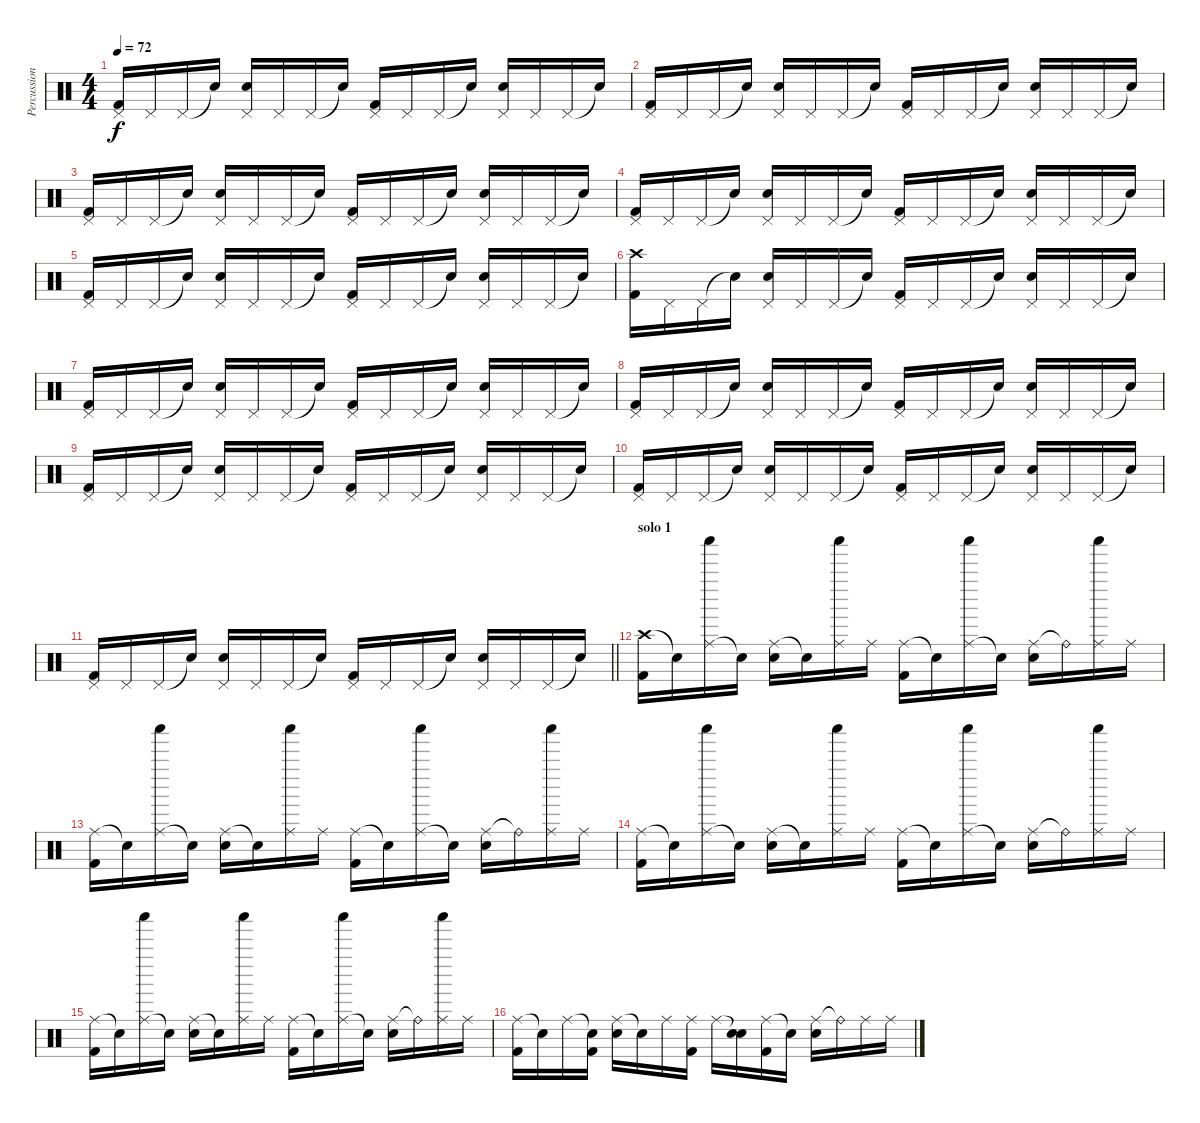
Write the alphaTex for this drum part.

\track ("Percussion" "Percussion") {instrument percussion}
\staff {score}
\articulation defaults
\ts (4 4)
\tempo 72
\clef neutral
\ks c
("Pedal Hi-Hat (hit)" "Kick (hit) 2").16{dy f} "Pedal Hi-Hat (hit)".16 "Pedal Hi-Hat (hit)".16 "Snare (hit)"{t}.16 ("Pedal Hi-Hat (hit)" "Electric Snare (hit)").16 "Pedal Hi-Hat (hit)".16 "Pedal Hi-Hat (hit)".16 "Snare (hit)"{t}.16 ("Pedal Hi-Hat (hit)" "Kick (hit) 2").16 "Pedal Hi-Hat (hit)".16 "Pedal Hi-Hat (hit)".16 "Snare (hit)"{t}.16 ("Pedal Hi-Hat (hit)" "Electric Snare (hit)").16 "Pedal Hi-Hat (hit)".16 "Pedal Hi-Hat (hit)".16 "Snare (hit)"{t}.16 |
("Pedal Hi-Hat (hit)" "Kick (hit) 2").16 "Pedal Hi-Hat (hit)".16 "Pedal Hi-Hat (hit)".16 "Snare (hit)"{t}.16 ("Pedal Hi-Hat (hit)" "Electric Snare (hit)").16 "Pedal Hi-Hat (hit)".16 "Pedal Hi-Hat (hit)".16 "Snare (hit)"{t}.16 ("Pedal Hi-Hat (hit)" "Kick (hit) 2").16 "Pedal Hi-Hat (hit)".16 "Pedal Hi-Hat (hit)".16 "Snare (hit)"{t}.16 ("Pedal Hi-Hat (hit)" "Electric Snare (hit)").16 "Pedal Hi-Hat (hit)".16 "Pedal Hi-Hat (hit)".16 "Snare (hit)"{t}.16 |
("Pedal Hi-Hat (hit)" "Kick (hit) 2").16 "Pedal Hi-Hat (hit)".16 "Pedal Hi-Hat (hit)".16 "Snare (hit)"{t}.16 ("Pedal Hi-Hat (hit)" "Electric Snare (hit)").16 "Pedal Hi-Hat (hit)".16 "Pedal Hi-Hat (hit)".16 "Snare (hit)"{t}.16 ("Pedal Hi-Hat (hit)" "Kick (hit) 2").16 "Pedal Hi-Hat (hit)".16 "Pedal Hi-Hat (hit)".16 "Snare (hit)"{t}.16 ("Pedal Hi-Hat (hit)" "Electric Snare (hit)").16 "Pedal Hi-Hat (hit)".16 "Pedal Hi-Hat (hit)".16 "Snare (hit)"{t}.16 |
("Pedal Hi-Hat (hit)" "Kick (hit) 2").16 "Pedal Hi-Hat (hit)".16 "Pedal Hi-Hat (hit)".16 "Snare (hit)"{t}.16 ("Pedal Hi-Hat (hit)" "Electric Snare (hit)").16 "Pedal Hi-Hat (hit)".16 "Pedal Hi-Hat (hit)".16 "Snare (hit)"{t}.16 ("Pedal Hi-Hat (hit)" "Kick (hit) 2").16 "Pedal Hi-Hat (hit)".16 "Pedal Hi-Hat (hit)".16 "Snare (hit)"{t}.16 ("Pedal Hi-Hat (hit)" "Electric Snare (hit)").16 "Pedal Hi-Hat (hit)".16 "Pedal Hi-Hat (hit)".16 "Snare (hit)"{t}.16 |
("Pedal Hi-Hat (hit)" "Kick (hit) 2").16 "Pedal Hi-Hat (hit)".16 "Pedal Hi-Hat (hit)".16 "Snare (hit)"{t}.16 ("Pedal Hi-Hat (hit)" "Electric Snare (hit)").16 "Pedal Hi-Hat (hit)".16 "Pedal Hi-Hat (hit)".16 "Snare (hit)"{t}.16 ("Pedal Hi-Hat (hit)" "Kick (hit) 2").16 "Pedal Hi-Hat (hit)".16 "Pedal Hi-Hat (hit)".16 "Snare (hit)"{t}.16 ("Pedal Hi-Hat (hit)" "Electric Snare (hit)").16 "Pedal Hi-Hat (hit)".16 "Pedal Hi-Hat (hit)".16 "Snare (hit)"{t}.16 |
("Crash high (hit)" "Kick (hit) 2").16 "Pedal Hi-Hat (hit)".16 "Pedal Hi-Hat (hit)".16 "Snare (hit)"{t}.16 ("Pedal Hi-Hat (hit)" "Electric Snare (hit)").16 "Pedal Hi-Hat (hit)".16 "Pedal Hi-Hat (hit)".16 "Snare (hit)"{t}.16 ("Pedal Hi-Hat (hit)" "Kick (hit) 2").16 "Pedal Hi-Hat (hit)".16 "Pedal Hi-Hat (hit)".16 "Snare (hit)"{t}.16 ("Pedal Hi-Hat (hit)" "Electric Snare (hit)").16 "Pedal Hi-Hat (hit)".16 "Pedal Hi-Hat (hit)".16 "Snare (hit)"{t}.16 |
("Pedal Hi-Hat (hit)" "Kick (hit) 2").16 "Pedal Hi-Hat (hit)".16 "Pedal Hi-Hat (hit)".16 "Snare (hit)"{t}.16 ("Pedal Hi-Hat (hit)" "Electric Snare (hit)").16 "Pedal Hi-Hat (hit)".16 "Pedal Hi-Hat (hit)".16 "Snare (hit)"{t}.16 ("Pedal Hi-Hat (hit)" "Kick (hit) 2").16 "Pedal Hi-Hat (hit)".16 "Pedal Hi-Hat (hit)".16 "Snare (hit)"{t}.16 ("Pedal Hi-Hat (hit)" "Electric Snare (hit)").16 "Pedal Hi-Hat (hit)".16 "Pedal Hi-Hat (hit)".16 "Snare (hit)"{t}.16 |
("Pedal Hi-Hat (hit)" "Kick (hit) 2").16 "Pedal Hi-Hat (hit)".16 "Pedal Hi-Hat (hit)".16 "Snare (hit)"{t}.16 ("Pedal Hi-Hat (hit)" "Electric Snare (hit)").16 "Pedal Hi-Hat (hit)".16 "Pedal Hi-Hat (hit)".16 "Snare (hit)"{t}.16 ("Pedal Hi-Hat (hit)" "Kick (hit) 2").16 "Pedal Hi-Hat (hit)".16 "Pedal Hi-Hat (hit)".16 "Snare (hit)"{t}.16 ("Pedal Hi-Hat (hit)" "Electric Snare (hit)").16 "Pedal Hi-Hat (hit)".16 "Pedal Hi-Hat (hit)".16 "Snare (hit)"{t}.16 |
("Pedal Hi-Hat (hit)" "Kick (hit) 2").16 "Pedal Hi-Hat (hit)".16 "Pedal Hi-Hat (hit)".16 "Snare (hit)"{t}.16 ("Pedal Hi-Hat (hit)" "Electric Snare (hit)").16 "Pedal Hi-Hat (hit)".16 "Pedal Hi-Hat (hit)".16 "Snare (hit)"{t}.16 ("Pedal Hi-Hat (hit)" "Kick (hit) 2").16 "Pedal Hi-Hat (hit)".16 "Pedal Hi-Hat (hit)".16 "Snare (hit)"{t}.16 ("Pedal Hi-Hat (hit)" "Electric Snare (hit)").16 "Pedal Hi-Hat (hit)".16 "Pedal Hi-Hat (hit)".16 "Snare (hit)"{t}.16 |
("Pedal Hi-Hat (hit)" "Kick (hit) 2").16 "Pedal Hi-Hat (hit)".16 "Pedal Hi-Hat (hit)".16 "Snare (hit)"{t}.16 ("Pedal Hi-Hat (hit)" "Electric Snare (hit)").16 "Pedal Hi-Hat (hit)".16 "Pedal Hi-Hat (hit)".16 "Snare (hit)"{t}.16 ("Pedal Hi-Hat (hit)" "Kick (hit) 2").16 "Pedal Hi-Hat (hit)".16 "Pedal Hi-Hat (hit)".16 "Snare (hit)"{t}.16 ("Pedal Hi-Hat (hit)" "Electric Snare (hit)").16 "Pedal Hi-Hat (hit)".16 "Pedal Hi-Hat (hit)".16 "Snare (hit)"{t}.16 |
\barLineRight lightlight
("Pedal Hi-Hat (hit)" "Kick (hit) 2").16 "Pedal Hi-Hat (hit)".16 "Pedal Hi-Hat (hit)".16 "Snare (hit)"{t}.16 ("Pedal Hi-Hat (hit)" "Electric Snare (hit)").16 "Pedal Hi-Hat (hit)".16 "Pedal Hi-Hat (hit)".16 "Snare (hit)"{t}.16 ("Pedal Hi-Hat (hit)" "Kick (hit) 2").16 "Pedal Hi-Hat (hit)".16 "Pedal Hi-Hat (hit)".16 "Snare (hit)"{t}.16 ("Pedal Hi-Hat (hit)" "Electric Snare (hit)").16 "Pedal Hi-Hat (hit)".16 "Pedal Hi-Hat (hit)".16 "Snare (hit)"{t}.16 |
\section ("" "solo 1")
("Crash high (hit)" "Kick (hit) 2").16 "Snare (hit)"{t}.16 ("Ride (middle)" "Shaker (hit)").16 "Snare (hit)"{t}.16 ("Ride (middle)" "Electric Snare (hit)").16 "Snare (hit)"{t}.16 ("Ride (middle)" "Shaker (hit)").16 "Ride (middle)".16 ("Ride (middle)" "Kick (hit) 2").16 "Snare (hit)"{t}.16 ("Ride (middle)" "Shaker (hit)").16 "Snare (hit)"{t}.16 ("Ride (middle)" "Electric Snare (hit)").16 "Ride (bell)"{t}.16 ("Ride (middle)" "Shaker (hit)").16 "Ride (middle)".16 |
("Ride (middle)" "Kick (hit) 2").16 "Snare (hit)"{t}.16 ("Ride (middle)" "Shaker (hit)").16 "Snare (hit)"{t}.16 ("Ride (middle)" "Electric Snare (hit)").16 "Snare (hit)"{t}.16 ("Ride (middle)" "Shaker (hit)").16 "Ride (middle)".16 ("Ride (middle)" "Kick (hit) 2").16 "Snare (hit)"{t}.16 ("Ride (middle)" "Shaker (hit)").16 "Snare (hit)"{t}.16 ("Ride (middle)" "Electric Snare (hit)").16 "Ride (bell)"{t}.16 ("Ride (middle)" "Shaker (hit)").16 "Ride (middle)".16 |
("Ride (middle)" "Kick (hit) 2").16 "Snare (hit)"{t}.16 ("Ride (middle)" "Shaker (hit)").16 "Snare (hit)"{t}.16 ("Ride (middle)" "Electric Snare (hit)").16 "Snare (hit)"{t}.16 ("Ride (middle)" "Shaker (hit)").16 "Ride (middle)".16 ("Ride (middle)" "Kick (hit) 2").16 "Snare (hit)"{t}.16 ("Ride (middle)" "Shaker (hit)").16 "Snare (hit)"{t}.16 ("Ride (middle)" "Electric Snare (hit)").16 "Ride (bell)"{t}.16 ("Ride (middle)" "Shaker (hit)").16 "Ride (middle)".16 |
("Ride (middle)" "Kick (hit) 2").16 "Snare (hit)"{t}.16 ("Ride (middle)" "Shaker (hit)").16 "Snare (hit)"{t}.16 ("Ride (middle)" "Electric Snare (hit)").16 "Snare (hit)"{t}.16 ("Ride (middle)" "Shaker (hit)").16 "Ride (middle)".16 ("Ride (middle)" "Kick (hit) 2").16 "Snare (hit)"{t}.16 ("Ride (middle)" "Shaker (hit)").16 "Snare (hit)"{t}.16 ("Ride (middle)" "Electric Snare (hit)").16 "Ride (bell)"{t}.16 ("Ride (middle)" "Shaker (hit)").16 "Ride (middle)".16 |
("Ride (middle)" "Kick (hit) 2").16 "Snare (hit)"{t}.16 "Ride (middle)".16 ("Snare (hit)"{t} "Kick (hit) 2").16 ("Ride (middle)" "Electric Snare (hit)").16 "Snare (hit)"{t}.16 "Ride (middle)".16 ("Ride (middle)" "Kick (hit) 2").16 "Ride (middle)".16 ("Snare (hit)"{t} "Electric Snare (hit)").16 ("Ride (middle)" "Kick (hit) 2").16 "Snare (hit)"{t}.16 ("Ride (middle)" "Electric Snare (hit)").16 "Ride (bell)"{t}.16 "Ride (middle)".16 "Ride (middle)".16
